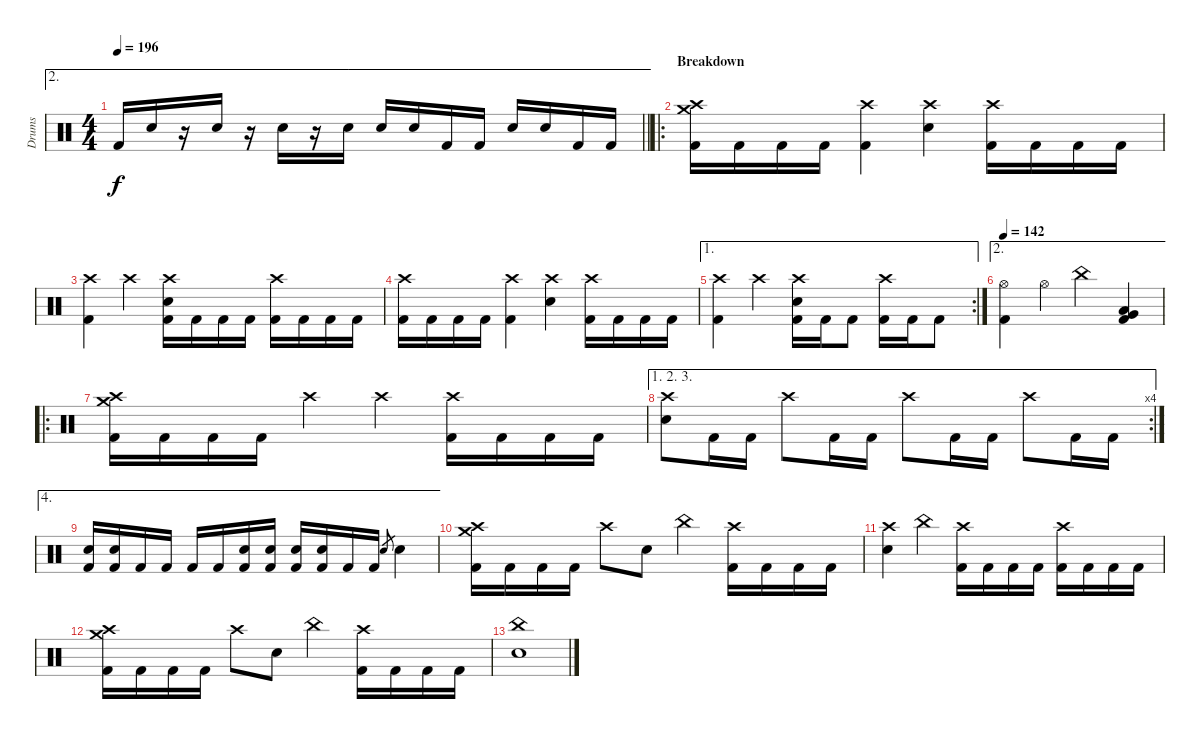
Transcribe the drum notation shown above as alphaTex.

\track ("Drums" "Drums") {instrument percussion}
\staff {score}
\articulation defaults
\ae 2
\ts (4 4)
\tempo 196
\clef neutral
\barLineRight lightlight
\ks c "Kick (hit) 2".16{dy f} "Electric Snare (hit)".16
r.16 "Electric Snare (hit)".16 r.16 "Electric Snare (hit)".16 r.16 "Electric Snare (hit)".16 "Electric Snare (hit)".16 "Electric Snare (hit)".16 "Kick (hit) 2".16 "Kick (hit) 2".16 "Electric Snare (hit)".16 "Electric Snare (hit)".16 "Kick (hit) 2".16 "Kick (hit) 2".16 |
\ro
\section ("" "Breakdown")
("Crash medium (hit)" "Crash high (hit)" "Kick (hit) 2").16 "Kick (hit) 2".16 "Kick (hit) 2".16 "Kick (hit) 2".16 ("Crash high (hit)" "Kick (hit) 2").4 ("Crash high (hit)" "Electric Snare (hit)").4 ("Crash high (hit)" "Kick (hit) 2").16 "Kick (hit) 2".16 "Kick (hit) 2".16 "Kick (hit) 2".16 |
("Crash high (hit)" "Kick (hit) 2").4 "Crash high (hit)".4 ("Crash high (hit)" "Electric Snare (hit)" "Kick (hit) 2").16 "Kick (hit) 2".16 "Kick (hit) 2".16 "Kick (hit) 2".16 ("Crash high (hit)" "Kick (hit) 2").16 "Kick (hit) 2".16 "Kick (hit) 2".16 "Kick (hit) 2".16 |
("Crash high (hit)" "Kick (hit) 2").16 "Kick (hit) 2".16 "Kick (hit) 2".16 "Kick (hit) 2".16 ("Crash high (hit)" "Kick (hit) 2").4 ("Crash high (hit)" "Electric Snare (hit)").4 ("Crash high (hit)" "Kick (hit) 2").16 "Kick (hit) 2".16 "Kick (hit) 2".16 "Kick (hit) 2".16 |
\ae 1
\rc 2
("Crash high (hit)" "Kick (hit) 2").4 "Crash high (hit)".4 ("Crash high (hit)" "Electric Snare (hit)" "Kick (hit) 2").16 "Kick (hit) 2".16 "Kick (hit) 2".8 ("Crash high (hit)" "Kick (hit) 2").16 "Kick (hit) 2".16 "Kick (hit) 2".8 |
\ae 2
\tempo 142
("Hi-Hat (open)" "Kick (hit) 2").4 "Hi-Hat (open)".4 "China (hit)".4 ("Very Low Tom (hit)" "Low Floor Tom (hit)" "Kick (hit) 2").4 |
\ro
("Crash medium (hit)" "Crash high (hit)" "Kick (hit) 2").16 "Kick (hit) 2".16 "Kick (hit) 2".16 "Kick (hit) 2".16 "Crash high (hit)".4 "Crash high (hit)".4 ("Crash high (hit)" "Kick (hit) 2").16 "Kick (hit) 2".16 "Kick (hit) 2".16 "Kick (hit) 2".16 |
\ae (1 2 3)
\rc 4
("Crash high (hit)" "Electric Snare (hit)").8 "Kick (hit) 2".16 "Kick (hit) 2".16 "Crash high (hit)".8 "Kick (hit) 2".16 "Kick (hit) 2".16 "Crash high (hit)".8 "Kick (hit) 2".16 "Kick (hit) 2".16 "Crash high (hit)".8 "Kick (hit) 2".16 "Kick (hit) 2".16 |
\ae 4
("Electric Snare (hit)" "Kick (hit) 2").16 ("Electric Snare (hit)" "Kick (hit) 2").16 "Kick (hit) 2".16 "Kick (hit) 2".16 "Kick (hit) 2".16 "Kick (hit) 2".16 ("Electric Snare (hit)" "Kick (hit) 2").16 ("Electric Snare (hit)" "Kick (hit) 2").16 ("Electric Snare (hit)" "Kick (hit) 2").16 ("Electric Snare (hit)" "Kick (hit) 2").16 "Kick (hit) 2".16 "Kick (hit) 2".16 "Electric Snare (hit)".8{gr} "Electric Snare (hit)".4 |
("Crash medium (hit)" "Crash high (hit)" "Kick (hit) 2").16 "Kick (hit) 2".16 "Kick (hit) 2".16 "Kick (hit) 2".16 "Crash high (hit)".8 "Electric Snare (hit)".8 "China (hit)".4 ("Crash high (hit)" "Kick (hit) 2").16 "Kick (hit) 2".16 "Kick (hit) 2".16 "Kick (hit) 2".16 |
("Crash high (hit)" "Electric Snare (hit)").4 "China (hit)".4 ("Crash high (hit)" "Kick (hit) 2").16 "Kick (hit) 2".16 "Kick (hit) 2".16 "Kick (hit) 2".16 ("Crash high (hit)" "Kick (hit) 2").16 "Kick (hit) 2".16 "Kick (hit) 2".16 "Kick (hit) 2".16 |
("Crash medium (hit)" "Crash high (hit)" "Kick (hit) 2").16 "Kick (hit) 2".16 "Kick (hit) 2".16 "Kick (hit) 2".16 "Crash high (hit)".8 "Electric Snare (hit)".8 "China (hit)".4 ("Crash high (hit)" "Kick (hit) 2").16 "Kick (hit) 2".16 "Kick (hit) 2".16 "Kick (hit) 2".16 |
("China (hit)" "Electric Snare (hit)").1
